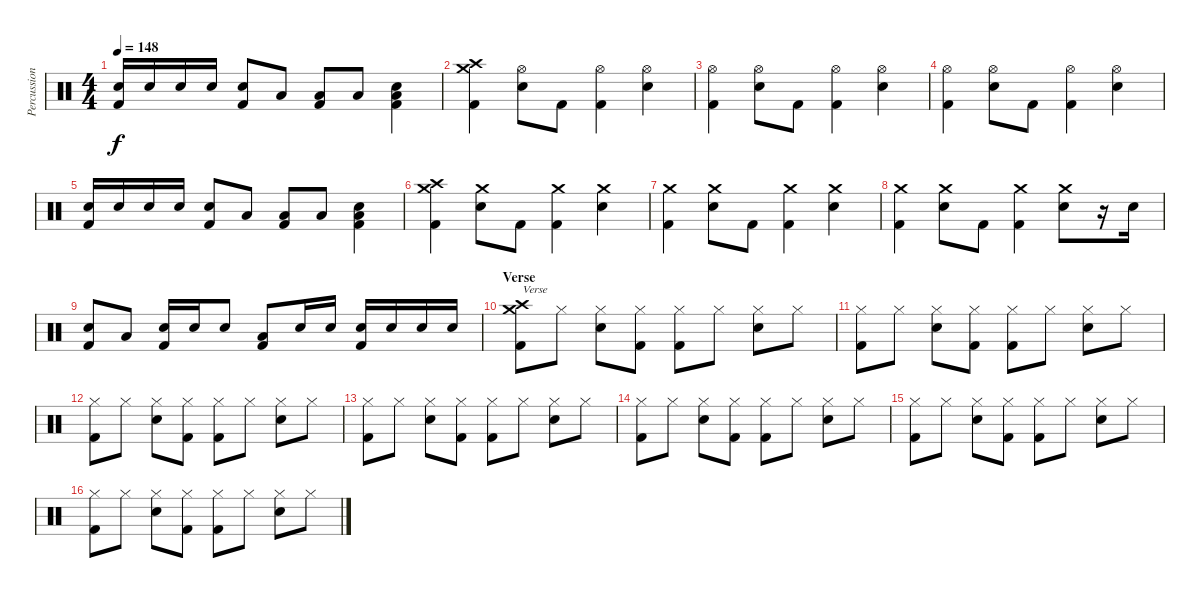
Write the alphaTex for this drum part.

\track ("Percussion" "Percussion") {instrument percussion}
\staff {score}
\articulation defaults
\ts (4 4)
\tempo 148
\clef neutral
\ks c
("Electric Snare (hit)" "Kick (hit) 2").16{dy f} "Electric Snare (hit)".16 "Electric Snare (hit)".16 "Electric Snare (hit)".16 ("Electric Snare (hit)" "Kick (hit) 2").8 "Low Tom (hit)".8 ("Low Floor Tom (hit)" "Kick (hit) 2").8 "Low Floor Tom (hit)".8 ("Electric Snare (hit)" "Low Floor Tom (hit)" "Kick (hit) 2").4 |
("Crash medium (hit)" "Crash high (hit)" "Kick (hit) 2").4 ("Hi-Hat (open)" "Electric Snare (hit)").8 "Kick (hit) 2".8 ("Hi-Hat (open)" "Kick (hit) 2").4 ("Hi-Hat (open)" "Electric Snare (hit)").4 |
("Hi-Hat (open)" "Kick (hit) 2").4 ("Hi-Hat (open)" "Electric Snare (hit)").8 "Kick (hit) 2".8 ("Hi-Hat (open)" "Kick (hit) 2").4 ("Hi-Hat (open)" "Electric Snare (hit)").4 |
("Hi-Hat (open)" "Kick (hit) 2").4 ("Hi-Hat (open)" "Electric Snare (hit)").8 "Kick (hit) 2".8 ("Hi-Hat (open)" "Kick (hit) 2").4 ("Hi-Hat (open)" "Electric Snare (hit)").4 |
("Electric Snare (hit)" "Kick (hit) 2").16 "Electric Snare (hit)".16 "Electric Snare (hit)".16 "Electric Snare (hit)".16 ("Electric Snare (hit)" "Kick (hit) 2").8 "Low Tom (hit)".8 ("Low Floor Tom (hit)" "Kick (hit) 2").8 "Low Floor Tom (hit)".8 ("Electric Snare (hit)" "Low Floor Tom (hit)" "Kick (hit) 2").4 |
("Crash medium (hit)" "Crash high (hit)" "Kick (hit) 2").4 ("Crash medium (hit)" "Electric Snare (hit)").8 "Kick (hit) 2".8 ("Crash medium (hit)" "Kick (hit) 2").4 ("Crash medium (hit)" "Electric Snare (hit)").4 |
("Crash medium (hit)" "Kick (hit) 2").4 ("Crash medium (hit)" "Electric Snare (hit)").8 "Kick (hit) 2".8 ("Crash medium (hit)" "Kick (hit) 2").4 ("Crash medium (hit)" "Electric Snare (hit)").4 |
("Crash medium (hit)" "Kick (hit) 2").4 ("Crash medium (hit)" "Electric Snare (hit)").8 "Kick (hit) 2".8 ("Crash medium (hit)" "Kick (hit) 2").4 ("Crash medium (hit)" "Electric Snare (hit)").8 r.16 "Electric Snare (hit)".16 |
("Electric Snare (hit)" "Kick (hit) 2").8 "Low Tom (hit)".8 ("Electric Snare (hit)" "Kick (hit) 2").16 "Electric Snare (hit)".16 "Electric Snare (hit)".8 ("Low Tom (hit)" "Kick (hit) 2").8 "Electric Snare (hit)".16 "Electric Snare (hit)".16 ("Electric Snare (hit)" "Kick (hit) 2").16 "Electric Snare (hit)".16 "Electric Snare (hit)".16 "Electric Snare (hit)".16 |
\section ("" "Verse")
("Crash medium (hit)" "Crash high (hit)" "Kick (hit) 2").8{txt "Verse"} "Hi-Hat (closed)".8 ("Hi-Hat (closed)" "Electric Snare (hit)").8 ("Hi-Hat (closed)" "Kick (hit) 2").8 ("Hi-Hat (closed)" "Kick (hit) 2").8 "Hi-Hat (closed)".8 ("Hi-Hat (closed)" "Electric Snare (hit)").8 "Hi-Hat (closed)".8 |
("Hi-Hat (closed)" "Kick (hit) 2").8 "Hi-Hat (closed)".8 ("Hi-Hat (closed)" "Electric Snare (hit)").8 ("Hi-Hat (closed)" "Kick (hit) 2").8 ("Hi-Hat (closed)" "Kick (hit) 2").8 "Hi-Hat (closed)".8 ("Hi-Hat (closed)" "Electric Snare (hit)").8 "Hi-Hat (closed)".8 |
("Hi-Hat (closed)" "Kick (hit) 2").8 "Hi-Hat (closed)".8 ("Hi-Hat (closed)" "Electric Snare (hit)").8 ("Hi-Hat (closed)" "Kick (hit) 2").8 ("Hi-Hat (closed)" "Kick (hit) 2").8 "Hi-Hat (closed)".8 ("Hi-Hat (closed)" "Electric Snare (hit)").8 "Hi-Hat (closed)".8 |
("Hi-Hat (closed)" "Kick (hit) 2").8 "Hi-Hat (closed)".8 ("Hi-Hat (closed)" "Electric Snare (hit)").8 ("Hi-Hat (closed)" "Kick (hit) 2").8 ("Hi-Hat (closed)" "Kick (hit) 2").8 "Hi-Hat (closed)".8 ("Hi-Hat (closed)" "Electric Snare (hit)").8 "Hi-Hat (closed)".8 |
("Hi-Hat (closed)" "Kick (hit) 2").8 "Hi-Hat (closed)".8 ("Hi-Hat (closed)" "Electric Snare (hit)").8 ("Hi-Hat (closed)" "Kick (hit) 2").8 ("Hi-Hat (closed)" "Kick (hit) 2").8 "Hi-Hat (closed)".8 ("Hi-Hat (closed)" "Electric Snare (hit)").8 "Hi-Hat (closed)".8 |
("Hi-Hat (closed)" "Kick (hit) 2").8 "Hi-Hat (closed)".8 ("Hi-Hat (closed)" "Electric Snare (hit)").8 ("Hi-Hat (closed)" "Kick (hit) 2").8 ("Hi-Hat (closed)" "Kick (hit) 2").8 "Hi-Hat (closed)".8 ("Hi-Hat (closed)" "Electric Snare (hit)").8 "Hi-Hat (closed)".8 |
("Hi-Hat (closed)" "Kick (hit) 2").8 "Hi-Hat (closed)".8 ("Hi-Hat (closed)" "Electric Snare (hit)").8 ("Hi-Hat (closed)" "Kick (hit) 2").8 ("Hi-Hat (closed)" "Kick (hit) 2").8 "Hi-Hat (closed)".8 ("Hi-Hat (closed)" "Electric Snare (hit)").8 "Hi-Hat (closed)".8
